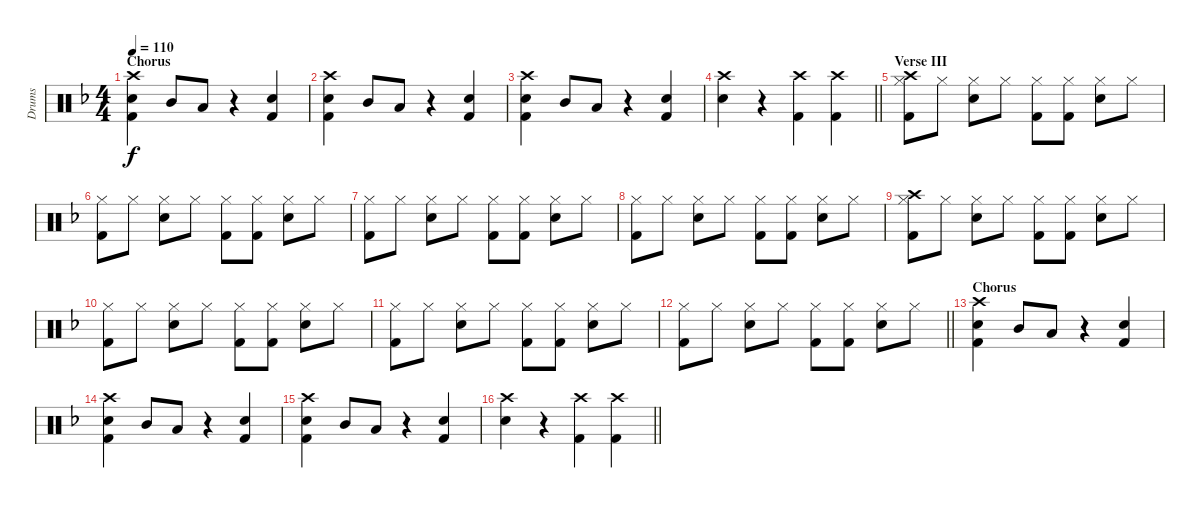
\track ("Drums" "Drums") {instrument percussion}
\staff {score}
\articulation defaults
\ts (4 4)
\section ("" "Chorus")
\tempo 110
\clef neutral
\ks f
("Crash high (hit)" "Snare (hit) 2" "Kick (hit) 2").4{dy f} "Mid Tom (hit)".8 "Low Tom (hit)".8 r.4 ("Snare (hit) 2" "Kick (hit) 2").4 |
("Crash high (hit)" "Snare (hit) 2" "Kick (hit) 2").4 "Mid Tom (hit)".8 "Low Tom (hit)".8 r.4 ("Snare (hit) 2" "Kick (hit) 2").4 |
("Crash high (hit)" "Snare (hit) 2" "Kick (hit) 2").4 "Mid Tom (hit)".8 "Low Tom (hit)".8 r.4 ("Snare (hit) 2" "Kick (hit) 2").4 |
\barLineRight lightlight
("Crash high (hit)" "Snare (hit) 2").4 r.4 ("Crash high (hit)" "Kick (hit) 2").4 ("Crash high (hit)" "Kick (hit) 2").4 |
\section ("" "Verse III")
("Crash high (hit)" "Hi-Hat (closed)" "Kick (hit) 2").8 "Hi-Hat (closed)".8 ("Hi-Hat (closed)" "Snare (hit) 2").8 "Hi-Hat (closed)".8 ("Hi-Hat (closed)" "Kick (hit) 2").8 ("Hi-Hat (closed)" "Kick (hit) 2").8 ("Hi-Hat (closed)" "Snare (hit) 2").8 "Hi-Hat (closed)".8 |
("Hi-Hat (closed)" "Kick (hit) 2").8 "Hi-Hat (closed)".8 ("Hi-Hat (closed)" "Snare (hit) 2").8 "Hi-Hat (closed)".8 ("Hi-Hat (closed)" "Kick (hit) 2").8 ("Hi-Hat (closed)" "Kick (hit) 2").8 ("Hi-Hat (closed)" "Snare (hit) 2").8 "Hi-Hat (closed)".8 |
("Hi-Hat (closed)" "Kick (hit) 2").8 "Hi-Hat (closed)".8 ("Hi-Hat (closed)" "Snare (hit) 2").8 "Hi-Hat (closed)".8 ("Hi-Hat (closed)" "Kick (hit) 2").8 ("Hi-Hat (closed)" "Kick (hit) 2").8 ("Hi-Hat (closed)" "Snare (hit) 2").8 "Hi-Hat (closed)".8 |
("Hi-Hat (closed)" "Kick (hit) 2").8 "Hi-Hat (closed)".8 ("Hi-Hat (closed)" "Snare (hit) 2").8 "Hi-Hat (closed)".8 ("Hi-Hat (closed)" "Kick (hit) 2").8 ("Hi-Hat (closed)" "Kick (hit) 2").8 ("Hi-Hat (closed)" "Snare (hit) 2").8 "Hi-Hat (closed)".8 |
("Crash high (hit)" "Hi-Hat (closed)" "Kick (hit) 2").8 "Hi-Hat (closed)".8 ("Hi-Hat (closed)" "Snare (hit) 2").8 "Hi-Hat (closed)".8 ("Hi-Hat (closed)" "Kick (hit) 2").8 ("Hi-Hat (closed)" "Kick (hit) 2").8 ("Hi-Hat (closed)" "Snare (hit) 2").8 "Hi-Hat (closed)".8 |
("Hi-Hat (closed)" "Kick (hit) 2").8 "Hi-Hat (closed)".8 ("Hi-Hat (closed)" "Snare (hit) 2").8 "Hi-Hat (closed)".8 ("Hi-Hat (closed)" "Kick (hit) 2").8 ("Hi-Hat (closed)" "Kick (hit) 2").8 ("Hi-Hat (closed)" "Snare (hit) 2").8 "Hi-Hat (closed)".8 |
("Hi-Hat (closed)" "Kick (hit) 2").8 "Hi-Hat (closed)".8 ("Hi-Hat (closed)" "Snare (hit) 2").8 "Hi-Hat (closed)".8 ("Hi-Hat (closed)" "Kick (hit) 2").8 ("Hi-Hat (closed)" "Kick (hit) 2").8 ("Hi-Hat (closed)" "Snare (hit) 2").8 "Hi-Hat (closed)".8 |
\barLineRight lightlight
("Hi-Hat (closed)" "Kick (hit) 2").8 "Hi-Hat (closed)".8 ("Hi-Hat (closed)" "Snare (hit) 2").8 "Hi-Hat (closed)".8 ("Hi-Hat (closed)" "Kick (hit) 2").8 ("Hi-Hat (closed)" "Kick (hit) 2").8 ("Hi-Hat (closed)" "Snare (hit) 2").8 "Hi-Hat (closed)".8 |
\section ("" "Chorus")
("Crash high (hit)" "Snare (hit) 2" "Kick (hit) 2").4 "Mid Tom (hit)".8 "Low Tom (hit)".8 r.4 ("Snare (hit) 2" "Kick (hit) 2").4 |
("Crash high (hit)" "Snare (hit) 2" "Kick (hit) 2").4 "Mid Tom (hit)".8 "Low Tom (hit)".8 r.4 ("Snare (hit) 2" "Kick (hit) 2").4 |
("Crash high (hit)" "Snare (hit) 2" "Kick (hit) 2").4 "Mid Tom (hit)".8 "Low Tom (hit)".8 r.4 ("Snare (hit) 2" "Kick (hit) 2").4 |
\barLineRight lightlight
("Crash high (hit)" "Snare (hit) 2").4 r.4 ("Crash high (hit)" "Kick (hit) 2").4 ("Crash high (hit)" "Kick (hit) 2").4
